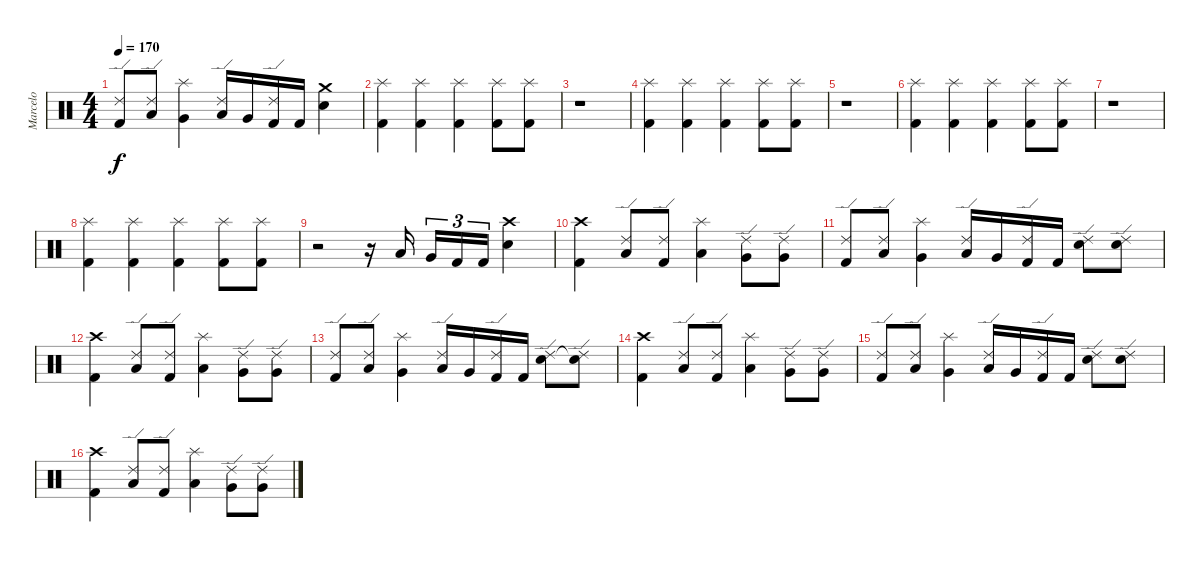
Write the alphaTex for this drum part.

\track ("Marcelo" "Marcelo") {instrument percussion}
\staff {score}
\articulation defaults
\ts (4 4)
\tempo 170
\clef neutral
\ks c
("Ride (edge) 2" "Kick (hit) 2").8{dy f} ("Ride (edge) 2" "Low Tom (hit)").8 ("Splash (hit)" "Very Low Tom (hit)").4 ("Ride (edge) 2" "Low Tom (hit)").16 "Very Low Tom (hit)".16 ("Ride (edge) 2" "Kick (hit) 2").16 "Kick (hit) 2".16 ("Crash medium (hit)" "Electric Snare (hit)").4 |
("Splash (hit)" "Kick (hit) 2").4 ("Splash (hit)" "Kick (hit) 2").4 ("Splash (hit)" "Kick (hit) 2").4 ("Splash (hit)" "Kick (hit) 2").8 ("Splash (hit)" "Kick (hit) 2").8 |
r.1 |
("Splash (hit)" "Kick (hit) 2").4 ("Splash (hit)" "Kick (hit) 2").4 ("Splash (hit)" "Kick (hit) 2").4 ("Splash (hit)" "Kick (hit) 2").8 ("Splash (hit)" "Kick (hit) 2").8 |
r.1 |
("Splash (hit)" "Kick (hit) 2").4 ("Splash (hit)" "Kick (hit) 2").4 ("Splash (hit)" "Kick (hit) 2").4 ("Splash (hit)" "Kick (hit) 2").8 ("Splash (hit)" "Kick (hit) 2").8 |
r.1 |
("Splash (hit)" "Kick (hit) 2").4 ("Splash (hit)" "Kick (hit) 2").4 ("Splash (hit)" "Kick (hit) 2").4 ("Splash (hit)" "Kick (hit) 2").8 ("Splash (hit)" "Kick (hit) 2").8 |
r.2 r.16 "Low Tom (hit)".16 "Very Low Tom (hit)".16{tu (3 2)} "Kick (hit) 2".16{tu (3 2)} "Kick (hit) 2".16{tu (3 2)} ("Crash high (hit)" "Electric Snare (hit)").4 |
("Crash high (hit)" "Kick (hit) 2").4 ("Ride (edge) 2" "Low Tom (hit)").8 ("Ride (edge) 2" "Kick (hit) 2").8 ("Splash (hit)" "Low Tom (hit)").4 ("Ride (edge) 2" "Very Low Tom (hit)").8 ("Ride (edge) 2" "Very Low Tom (hit)").8 |
("Ride (edge) 2" "Kick (hit) 2").8 ("Ride (edge) 2" "Low Tom (hit)").8 ("Splash (hit)" "Very Low Tom (hit)").4 ("Ride (edge) 2" "Low Tom (hit)").16 "Very Low Tom (hit)".16 ("Ride (edge) 2" "Kick (hit) 2").16 "Kick (hit) 2".16 ("Ride (edge) 2" "Electric Snare (hit)").8 ("Ride (edge) 2" "Electric Snare (hit)").8 |
("Crash high (hit)" "Kick (hit) 2").4 ("Ride (edge) 2" "Low Tom (hit)").8 ("Ride (edge) 2" "Kick (hit) 2").8 ("Splash (hit)" "Low Tom (hit)").4 ("Ride (edge) 2" "Very Low Tom (hit)").8 ("Ride (edge) 2" "Very Low Tom (hit)").8 |
("Ride (edge) 2" "Kick (hit) 2").8 ("Ride (edge) 2" "Low Tom (hit)").8 ("Splash (hit)" "Very Low Tom (hit)").4 ("Ride (edge) 2" "Low Tom (hit)").16 "Very Low Tom (hit)".16 ("Ride (edge) 2" "Kick (hit) 2").16 "Kick (hit) 2".16 ("Ride (edge) 2" "Electric Snare (hit)").8 ("Ride (edge) 2" "Snare (hit)"{t}).8 |
("Crash high (hit)" "Kick (hit) 2").4 ("Ride (edge) 2" "Low Tom (hit)").8 ("Ride (edge) 2" "Kick (hit) 2").8 ("Splash (hit)" "Low Tom (hit)").4 ("Ride (edge) 2" "Very Low Tom (hit)").8 ("Ride (edge) 2" "Very Low Tom (hit)").8 |
("Ride (edge) 2" "Kick (hit) 2").8 ("Ride (edge) 2" "Low Tom (hit)").8 ("Splash (hit)" "Very Low Tom (hit)").4 ("Ride (edge) 2" "Low Tom (hit)").16 "Very Low Tom (hit)".16 ("Ride (edge) 2" "Kick (hit) 2").16 "Kick (hit) 2".16 ("Ride (edge) 2" "Electric Snare (hit)").8 ("Ride (edge) 2" "Electric Snare (hit)").8 |
("Crash high (hit)" "Kick (hit) 2").4 ("Ride (edge) 2" "Low Tom (hit)").8 ("Ride (edge) 2" "Kick (hit) 2").8 ("Splash (hit)" "Low Tom (hit)").4 ("Ride (edge) 2" "Very Low Tom (hit)").8 ("Ride (edge) 2" "Very Low Tom (hit)").8
